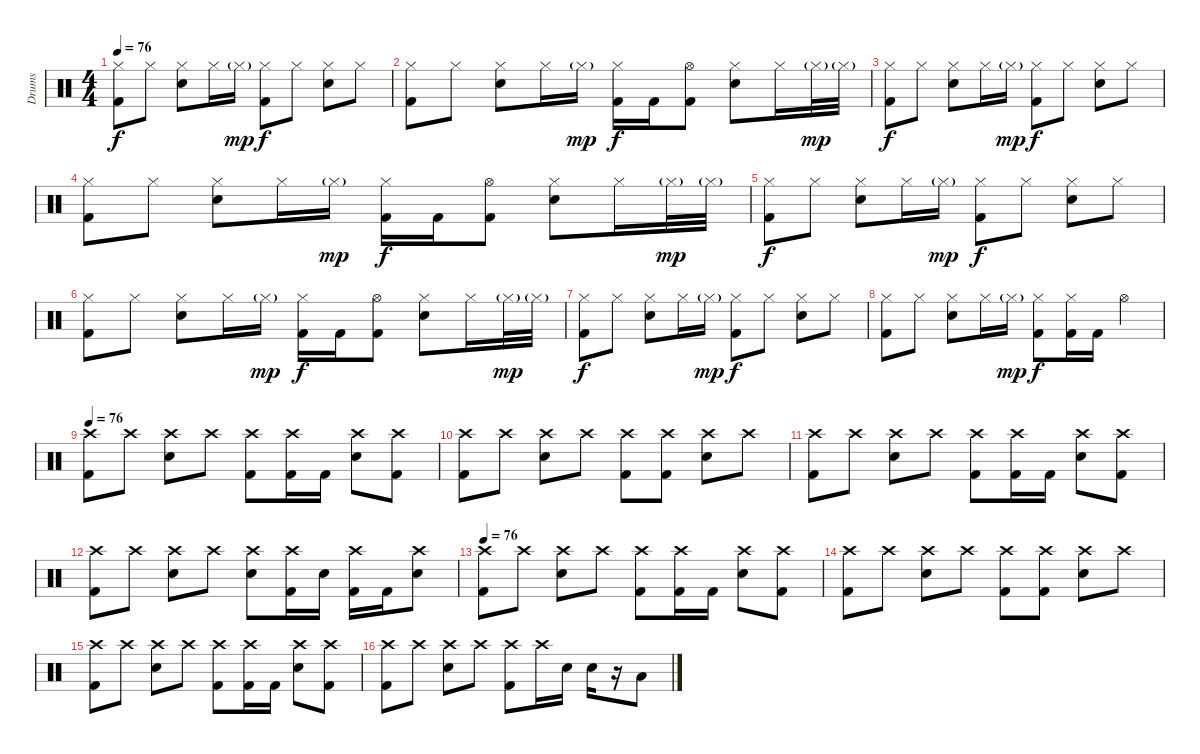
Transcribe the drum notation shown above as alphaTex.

\track ("Drums" "Drums") {instrument percussion}
\staff {score}
\articulation defaults
\ts (4 4)
\tempo 76
\clef neutral
\ks c
("Hi-Hat (closed)" "Kick (hit) 2").8{dy f} "Hi-Hat (closed)".8 ("Hi-Hat (closed)" "Electric Snare (hit)").8 "Hi-Hat (closed)".16 "Hi-Hat (closed)"{g}.16{dy mp} ("Hi-Hat (closed)" "Kick (hit) 2").8{dy f} "Hi-Hat (closed)".8 ("Hi-Hat (closed)" "Electric Snare (hit)").8 "Hi-Hat (closed)".8 |
("Hi-Hat (closed)" "Kick (hit) 2").8 "Hi-Hat (closed)".8 ("Hi-Hat (closed)" "Electric Snare (hit)").8 "Hi-Hat (closed)".16 "Hi-Hat (closed)"{g}.16{dy mp} ("Hi-Hat (closed)" "Kick (hit) 2").16{dy f} "Kick (hit) 2".16 ("Hi-Hat (open)" "Kick (hit) 2").8 ("Hi-Hat (closed)" "Electric Snare (hit)").8 "Hi-Hat (closed)".16 "Hi-Hat (closed)"{g}.32{dy mp} "Hi-Hat (closed)"{g}.32 |
("Hi-Hat (closed)" "Kick (hit) 2").8{dy f} "Hi-Hat (closed)".8 ("Hi-Hat (closed)" "Electric Snare (hit)").8 "Hi-Hat (closed)".16 "Hi-Hat (closed)"{g}.16{dy mp} ("Hi-Hat (closed)" "Kick (hit) 2").8{dy f} "Hi-Hat (closed)".8 ("Hi-Hat (closed)" "Electric Snare (hit)").8 "Hi-Hat (closed)".8 |
("Hi-Hat (closed)" "Kick (hit) 2").8 "Hi-Hat (closed)".8 ("Hi-Hat (closed)" "Electric Snare (hit)").8 "Hi-Hat (closed)".16 "Hi-Hat (closed)"{g}.16{dy mp} ("Hi-Hat (closed)" "Kick (hit) 2").16{dy f} "Kick (hit) 2".16 ("Hi-Hat (open)" "Kick (hit) 2").8 ("Hi-Hat (closed)" "Electric Snare (hit)").8 "Hi-Hat (closed)".16 "Hi-Hat (closed)"{g}.32{dy mp} "Hi-Hat (closed)"{g}.32 |
("Hi-Hat (closed)" "Kick (hit) 2").8{dy f} "Hi-Hat (closed)".8 ("Hi-Hat (closed)" "Electric Snare (hit)").8 "Hi-Hat (closed)".16 "Hi-Hat (closed)"{g}.16{dy mp} ("Hi-Hat (closed)" "Kick (hit) 2").8{dy f} "Hi-Hat (closed)".8 ("Hi-Hat (closed)" "Electric Snare (hit)").8 "Hi-Hat (closed)".8 |
("Hi-Hat (closed)" "Kick (hit) 2").8 "Hi-Hat (closed)".8 ("Hi-Hat (closed)" "Electric Snare (hit)").8 "Hi-Hat (closed)".16 "Hi-Hat (closed)"{g}.16{dy mp} ("Hi-Hat (closed)" "Kick (hit) 2").16{dy f} "Kick (hit) 2".16 ("Hi-Hat (open)" "Kick (hit) 2").8 ("Hi-Hat (closed)" "Electric Snare (hit)").8 "Hi-Hat (closed)".16 "Hi-Hat (closed)"{g}.32{dy mp} "Hi-Hat (closed)"{g}.32 |
("Hi-Hat (closed)" "Kick (hit) 2").8{dy f} "Hi-Hat (closed)".8 ("Hi-Hat (closed)" "Electric Snare (hit)").8 "Hi-Hat (closed)".16 "Hi-Hat (closed)"{g}.16{dy mp} ("Hi-Hat (closed)" "Kick (hit) 2").8{dy f} "Hi-Hat (closed)".8 ("Hi-Hat (closed)" "Electric Snare (hit)").8 "Hi-Hat (closed)".8 |
("Hi-Hat (closed)" "Kick (hit) 2").8 "Hi-Hat (closed)".8 ("Hi-Hat (closed)" "Electric Snare (hit)").8 "Hi-Hat (closed)".16 "Hi-Hat (closed)"{g}.16{dy mp} ("Hi-Hat (closed)" "Kick (hit) 2").8{dy f} ("Hi-Hat (closed)" "Kick (hit) 2").16 "Kick (hit) 2".16 "Hi-Hat (open)".4 |
\tempo 76
("Crash high (hit)" "Kick (hit) 2").8 "Crash high (hit)".8 ("Crash high (hit)" "Electric Snare (hit)").8 "Crash high (hit)".8 ("Crash high (hit)" "Kick (hit) 2").8 ("Crash high (hit)" "Kick (hit) 2").16 "Kick (hit) 2".16 ("Crash high (hit)" "Electric Snare (hit)").8 ("Crash high (hit)" "Kick (hit) 2").8 |
("Crash high (hit)" "Kick (hit) 2").8 "Crash high (hit)".8 ("Crash high (hit)" "Electric Snare (hit)").8 "Crash high (hit)".8 ("Crash high (hit)" "Kick (hit) 2").8 ("Crash high (hit)" "Kick (hit) 2").8 ("Crash high (hit)" "Electric Snare (hit)").8 "Crash high (hit)".8 |
("Crash high (hit)" "Kick (hit) 2").8 "Crash high (hit)".8 ("Crash high (hit)" "Electric Snare (hit)").8 "Crash high (hit)".8 ("Crash high (hit)" "Kick (hit) 2").8 ("Crash high (hit)" "Kick (hit) 2").16 "Kick (hit) 2".16 ("Crash high (hit)" "Electric Snare (hit)").8 ("Crash high (hit)" "Kick (hit) 2").8 |
("Crash high (hit)" "Kick (hit) 2").8 "Crash high (hit)".8 ("Crash high (hit)" "Electric Snare (hit)").8 "Crash high (hit)".8 ("Crash high (hit)" "Electric Snare (hit)").8 ("Crash high (hit)" "Kick (hit) 2").16 "Electric Snare (hit)".16 ("Crash high (hit)" "Kick (hit) 2").16 "Kick (hit) 2".16 ("Crash high (hit)" "Electric Snare (hit)").8 |
\tempo 76
("Crash high (hit)" "Kick (hit) 2").8 "Crash high (hit)".8 ("Crash high (hit)" "Electric Snare (hit)").8 "Crash high (hit)".8 ("Crash high (hit)" "Kick (hit) 2").8 ("Crash high (hit)" "Kick (hit) 2").16 "Kick (hit) 2".16 ("Crash high (hit)" "Electric Snare (hit)").8 ("Crash high (hit)" "Kick (hit) 2").8 |
("Crash high (hit)" "Kick (hit) 2").8 "Crash high (hit)".8 ("Crash high (hit)" "Electric Snare (hit)").8 "Crash high (hit)".8 ("Crash high (hit)" "Kick (hit) 2").8 ("Crash high (hit)" "Kick (hit) 2").8 ("Crash high (hit)" "Electric Snare (hit)").8 "Crash high (hit)".8 |
("Crash high (hit)" "Kick (hit) 2").8 "Crash high (hit)".8 ("Crash high (hit)" "Electric Snare (hit)").8 "Crash high (hit)".8 ("Crash high (hit)" "Kick (hit) 2").8 ("Crash high (hit)" "Kick (hit) 2").16 "Kick (hit) 2".16 ("Crash high (hit)" "Electric Snare (hit)").8 ("Crash high (hit)" "Kick (hit) 2").8 |
("Crash high (hit)" "Kick (hit) 2").8 "Crash high (hit)".8 ("Crash high (hit)" "Electric Snare (hit)").8 "Crash high (hit)".8 ("Crash high (hit)" "Kick (hit) 2").8 "Crash high (hit)".16 "Electric Snare (hit)".16 "Electric Snare (hit)".16 r.16 "Low Tom (hit)".8
